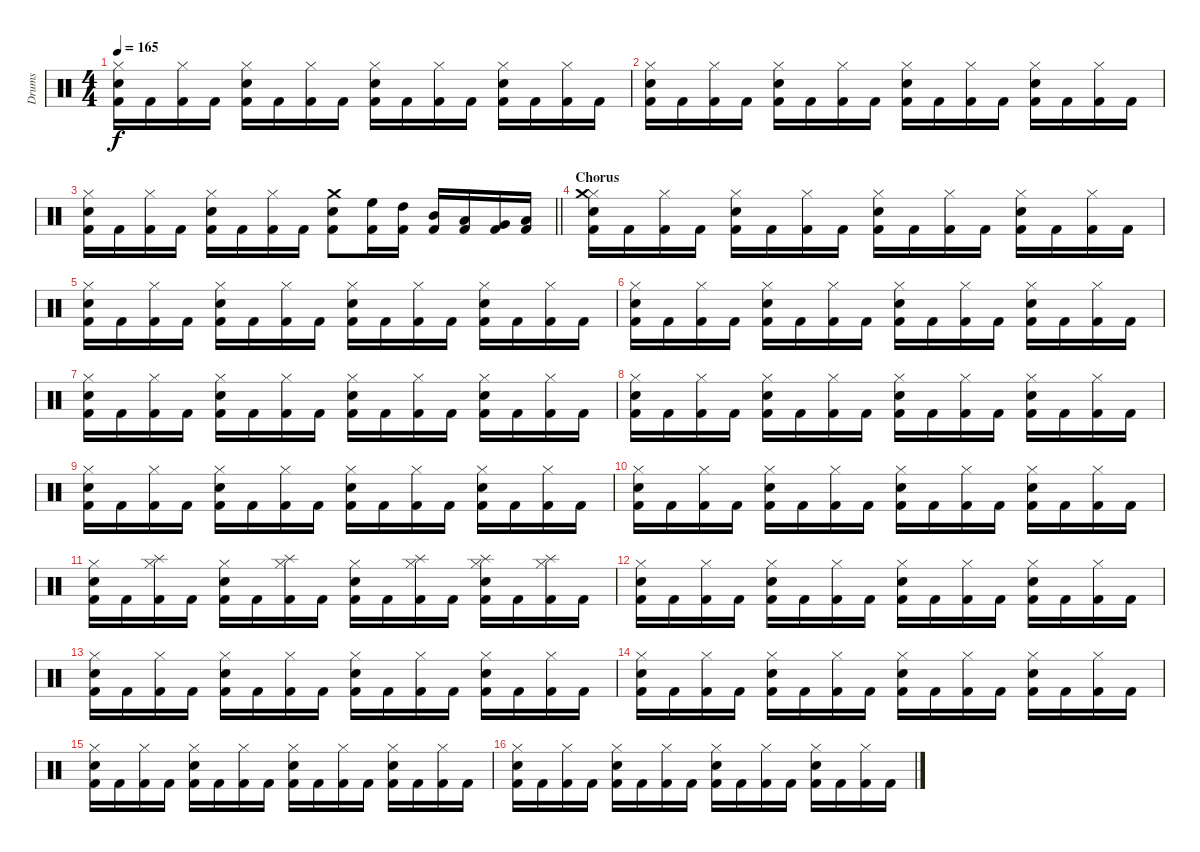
\track ("Drums" "Drums") {instrument percussion}
\staff {score}
\articulation defaults
\ts (4 4)
\tempo 165
\clef neutral
\ks c
("Hi-Hat (closed)" "Snare (hit) 2" "Kick (hit) 2").16{dy f} "Kick (hit) 2".16 ("Hi-Hat (closed)" "Kick (hit) 2").16 "Kick (hit) 2".16 ("Hi-Hat (closed)" "Snare (hit) 2" "Kick (hit) 2").16 "Kick (hit) 2".16 ("Hi-Hat (closed)" "Kick (hit) 2").16 "Kick (hit) 2".16 ("Hi-Hat (closed)" "Snare (hit) 2" "Kick (hit) 2").16 "Kick (hit) 2".16 ("Hi-Hat (closed)" "Kick (hit) 2").16 "Kick (hit) 2".16 ("Hi-Hat (closed)" "Snare (hit) 2" "Kick (hit) 2").16 "Kick (hit) 2".16 ("Hi-Hat (closed)" "Kick (hit) 2").16 "Kick (hit) 2".16 |
("Hi-Hat (closed)" "Snare (hit) 2" "Kick (hit) 2").16 "Kick (hit) 2".16 ("Hi-Hat (closed)" "Kick (hit) 2").16 "Kick (hit) 2".16 ("Hi-Hat (closed)" "Snare (hit) 2" "Kick (hit) 2").16 "Kick (hit) 2".16 ("Hi-Hat (closed)" "Kick (hit) 2").16 "Kick (hit) 2".16 ("Hi-Hat (closed)" "Snare (hit) 2" "Kick (hit) 2").16 "Kick (hit) 2".16 ("Hi-Hat (closed)" "Kick (hit) 2").16 "Kick (hit) 2".16 ("Hi-Hat (closed)" "Snare (hit) 2" "Kick (hit) 2").16 "Kick (hit) 2".16 ("Hi-Hat (closed)" "Kick (hit) 2").16 "Kick (hit) 2".16 |
\barLineRight lightlight
("Hi-Hat (closed)" "Snare (hit) 2" "Kick (hit) 2").16 "Kick (hit) 2".16 ("Hi-Hat (closed)" "Kick (hit) 2").16 "Kick (hit) 2".16 ("Hi-Hat (closed)" "Snare (hit) 2" "Kick (hit) 2").16 "Kick (hit) 2".16 ("Hi-Hat (closed)" "Kick (hit) 2").16 "Kick (hit) 2".16 ("Crash medium (hit)" "Snare (hit) 2" "Kick (hit) 2").8 ("High Floor Tom (hit)" "Kick (hit) 2").16 ("High Tom (hit)" "Kick (hit) 2").16 ("Mid Tom (hit)" "Kick (hit) 2").16 ("Low Tom (hit)" "Kick (hit) 2").16 ("Very Low Tom (hit)" "Kick (hit) 2").16 ("Low Floor Tom (hit)" "Kick (hit) 2").16 |
\section ("" "Chorus")
("Hi-Hat (closed)" "Snare (hit) 2" "Crash medium (hit)" "Kick (hit) 2").16 "Kick (hit) 2".16 ("Hi-Hat (closed)" "Kick (hit) 2").16 "Kick (hit) 2".16 ("Hi-Hat (closed)" "Snare (hit) 2" "Kick (hit) 2").16 "Kick (hit) 2".16 ("Hi-Hat (closed)" "Kick (hit) 2").16 "Kick (hit) 2".16 ("Hi-Hat (closed)" "Snare (hit) 2" "Kick (hit) 2").16 "Kick (hit) 2".16 ("Hi-Hat (closed)" "Kick (hit) 2").16 "Kick (hit) 2".16 ("Hi-Hat (closed)" "Snare (hit) 2" "Kick (hit) 2").16 "Kick (hit) 2".16 ("Hi-Hat (closed)" "Kick (hit) 2").16 "Kick (hit) 2".16 |
("Hi-Hat (closed)" "Snare (hit) 2" "Kick (hit) 2").16 "Kick (hit) 2".16 ("Hi-Hat (closed)" "Kick (hit) 2").16 "Kick (hit) 2".16 ("Hi-Hat (closed)" "Snare (hit) 2" "Kick (hit) 2").16 "Kick (hit) 2".16 ("Hi-Hat (closed)" "Kick (hit) 2").16 "Kick (hit) 2".16 ("Hi-Hat (closed)" "Snare (hit) 2" "Kick (hit) 2").16 "Kick (hit) 2".16 ("Hi-Hat (closed)" "Kick (hit) 2").16 "Kick (hit) 2".16 ("Hi-Hat (closed)" "Snare (hit) 2" "Kick (hit) 2").16 "Kick (hit) 2".16 ("Hi-Hat (closed)" "Kick (hit) 2").16 "Kick (hit) 2".16 |
("Hi-Hat (closed)" "Snare (hit) 2" "Kick (hit) 2").16 "Kick (hit) 2".16 ("Hi-Hat (closed)" "Kick (hit) 2").16 "Kick (hit) 2".16 ("Hi-Hat (closed)" "Snare (hit) 2" "Kick (hit) 2").16 "Kick (hit) 2".16 ("Hi-Hat (closed)" "Kick (hit) 2").16 "Kick (hit) 2".16 ("Hi-Hat (closed)" "Snare (hit) 2" "Kick (hit) 2").16 "Kick (hit) 2".16 ("Hi-Hat (closed)" "Kick (hit) 2").16 "Kick (hit) 2".16 ("Hi-Hat (closed)" "Snare (hit) 2" "Kick (hit) 2").16 "Kick (hit) 2".16 ("Hi-Hat (closed)" "Kick (hit) 2").16 "Kick (hit) 2".16 |
("Hi-Hat (closed)" "Snare (hit) 2" "Kick (hit) 2").16 "Kick (hit) 2".16 ("Hi-Hat (closed)" "Kick (hit) 2").16 "Kick (hit) 2".16 ("Hi-Hat (closed)" "Snare (hit) 2" "Kick (hit) 2").16 "Kick (hit) 2".16 ("Hi-Hat (closed)" "Kick (hit) 2").16 "Kick (hit) 2".16 ("Hi-Hat (closed)" "Snare (hit) 2" "Kick (hit) 2").16 "Kick (hit) 2".16 ("Hi-Hat (closed)" "Kick (hit) 2").16 "Kick (hit) 2".16 ("Hi-Hat (closed)" "Snare (hit) 2" "Kick (hit) 2").16 "Kick (hit) 2".16 ("Hi-Hat (closed)" "Kick (hit) 2").16 "Kick (hit) 2".16 |
("Hi-Hat (closed)" "Snare (hit) 2" "Kick (hit) 2").16 "Kick (hit) 2".16 ("Hi-Hat (closed)" "Kick (hit) 2").16 "Kick (hit) 2".16 ("Hi-Hat (closed)" "Snare (hit) 2" "Kick (hit) 2").16 "Kick (hit) 2".16 ("Hi-Hat (closed)" "Kick (hit) 2").16 "Kick (hit) 2".16 ("Hi-Hat (closed)" "Snare (hit) 2" "Kick (hit) 2").16 "Kick (hit) 2".16 ("Hi-Hat (closed)" "Kick (hit) 2").16 "Kick (hit) 2".16 ("Hi-Hat (closed)" "Snare (hit) 2" "Kick (hit) 2").16 "Kick (hit) 2".16 ("Hi-Hat (closed)" "Kick (hit) 2").16 "Kick (hit) 2".16 |
("Hi-Hat (closed)" "Snare (hit) 2" "Kick (hit) 2").16 "Kick (hit) 2".16 ("Hi-Hat (closed)" "Kick (hit) 2").16 "Kick (hit) 2".16 ("Hi-Hat (closed)" "Snare (hit) 2" "Kick (hit) 2").16 "Kick (hit) 2".16 ("Hi-Hat (closed)" "Kick (hit) 2").16 "Kick (hit) 2".16 ("Hi-Hat (closed)" "Snare (hit) 2" "Kick (hit) 2").16 "Kick (hit) 2".16 ("Hi-Hat (closed)" "Kick (hit) 2").16 "Kick (hit) 2".16 ("Hi-Hat (closed)" "Snare (hit) 2" "Kick (hit) 2").16 "Kick (hit) 2".16 ("Hi-Hat (closed)" "Kick (hit) 2").16 "Kick (hit) 2".16 |
("Hi-Hat (closed)" "Snare (hit) 2" "Kick (hit) 2").16 "Kick (hit) 2".16 ("Hi-Hat (closed)" "Kick (hit) 2").16 "Kick (hit) 2".16 ("Hi-Hat (closed)" "Snare (hit) 2" "Kick (hit) 2").16 "Kick (hit) 2".16 ("Hi-Hat (closed)" "Kick (hit) 2").16 "Kick (hit) 2".16 ("Hi-Hat (closed)" "Snare (hit) 2" "Kick (hit) 2").16 "Kick (hit) 2".16 ("Hi-Hat (closed)" "Kick (hit) 2").16 "Kick (hit) 2".16 ("Hi-Hat (closed)" "Snare (hit) 2" "Kick (hit) 2").16 "Kick (hit) 2".16 ("Hi-Hat (closed)" "Kick (hit) 2").16 "Kick (hit) 2".16 |
("Hi-Hat (closed)" "Snare (hit) 2" "Kick (hit) 2").16 "Kick (hit) 2".16 ("Hi-Hat (closed)" "Splash (hit)" "Kick (hit) 2").16 "Kick (hit) 2".16 ("Hi-Hat (closed)" "Snare (hit) 2" "Kick (hit) 2").16 "Kick (hit) 2".16 ("Hi-Hat (closed)" "Splash (hit)" "Kick (hit) 2").16 "Kick (hit) 2".16 ("Hi-Hat (closed)" "Snare (hit) 2" "Kick (hit) 2").16 "Kick (hit) 2".16 ("Hi-Hat (closed)" "Splash (hit)" "Kick (hit) 2").16 "Kick (hit) 2".16 ("Hi-Hat (closed)" "Snare (hit) 2" "Splash (hit)" "Kick (hit) 2").16 "Kick (hit) 2".16 ("Hi-Hat (closed)" "Splash (hit)" "Kick (hit) 2").16 "Kick (hit) 2".16 |
("Hi-Hat (closed)" "Snare (hit) 2" "Kick (hit) 2").16 "Kick (hit) 2".16 ("Hi-Hat (closed)" "Kick (hit) 2").16 "Kick (hit) 2".16 ("Hi-Hat (closed)" "Snare (hit) 2" "Kick (hit) 2").16 "Kick (hit) 2".16 ("Hi-Hat (closed)" "Kick (hit) 2").16 "Kick (hit) 2".16 ("Hi-Hat (closed)" "Snare (hit) 2" "Kick (hit) 2").16 "Kick (hit) 2".16 ("Hi-Hat (closed)" "Kick (hit) 2").16 "Kick (hit) 2".16 ("Hi-Hat (closed)" "Snare (hit) 2" "Kick (hit) 2").16 "Kick (hit) 2".16 ("Hi-Hat (closed)" "Kick (hit) 2").16 "Kick (hit) 2".16 |
("Hi-Hat (closed)" "Snare (hit) 2" "Kick (hit) 2").16 "Kick (hit) 2".16 ("Hi-Hat (closed)" "Kick (hit) 2").16 "Kick (hit) 2".16 ("Hi-Hat (closed)" "Snare (hit) 2" "Kick (hit) 2").16 "Kick (hit) 2".16 ("Hi-Hat (closed)" "Kick (hit) 2").16 "Kick (hit) 2".16 ("Hi-Hat (closed)" "Snare (hit) 2" "Kick (hit) 2").16 "Kick (hit) 2".16 ("Hi-Hat (closed)" "Kick (hit) 2").16 "Kick (hit) 2".16 ("Hi-Hat (closed)" "Snare (hit) 2" "Kick (hit) 2").16 "Kick (hit) 2".16 ("Hi-Hat (closed)" "Kick (hit) 2").16 "Kick (hit) 2".16 |
("Hi-Hat (closed)" "Snare (hit) 2" "Kick (hit) 2").16 "Kick (hit) 2".16 ("Hi-Hat (closed)" "Kick (hit) 2").16 "Kick (hit) 2".16 ("Hi-Hat (closed)" "Snare (hit) 2" "Kick (hit) 2").16 "Kick (hit) 2".16 ("Hi-Hat (closed)" "Kick (hit) 2").16 "Kick (hit) 2".16 ("Hi-Hat (closed)" "Snare (hit) 2" "Kick (hit) 2").16 "Kick (hit) 2".16 ("Hi-Hat (closed)" "Kick (hit) 2").16 "Kick (hit) 2".16 ("Hi-Hat (closed)" "Snare (hit) 2" "Kick (hit) 2").16 "Kick (hit) 2".16 ("Hi-Hat (closed)" "Kick (hit) 2").16 "Kick (hit) 2".16 |
("Hi-Hat (closed)" "Snare (hit) 2" "Kick (hit) 2").16 "Kick (hit) 2".16 ("Hi-Hat (closed)" "Kick (hit) 2").16 "Kick (hit) 2".16 ("Hi-Hat (closed)" "Snare (hit) 2" "Kick (hit) 2").16 "Kick (hit) 2".16 ("Hi-Hat (closed)" "Kick (hit) 2").16 "Kick (hit) 2".16 ("Hi-Hat (closed)" "Snare (hit) 2" "Kick (hit) 2").16 "Kick (hit) 2".16 ("Hi-Hat (closed)" "Kick (hit) 2").16 "Kick (hit) 2".16 ("Hi-Hat (closed)" "Snare (hit) 2" "Kick (hit) 2").16 "Kick (hit) 2".16 ("Hi-Hat (closed)" "Kick (hit) 2").16 "Kick (hit) 2".16 |
("Hi-Hat (closed)" "Snare (hit) 2" "Kick (hit) 2").16 "Kick (hit) 2".16 ("Hi-Hat (closed)" "Kick (hit) 2").16 "Kick (hit) 2".16 ("Hi-Hat (closed)" "Snare (hit) 2" "Kick (hit) 2").16 "Kick (hit) 2".16 ("Hi-Hat (closed)" "Kick (hit) 2").16 "Kick (hit) 2".16 ("Hi-Hat (closed)" "Snare (hit) 2" "Kick (hit) 2").16 "Kick (hit) 2".16 ("Hi-Hat (closed)" "Kick (hit) 2").16 "Kick (hit) 2".16 ("Hi-Hat (closed)" "Snare (hit) 2" "Kick (hit) 2").16 "Kick (hit) 2".16 ("Hi-Hat (closed)" "Kick (hit) 2").16 "Kick (hit) 2".16
